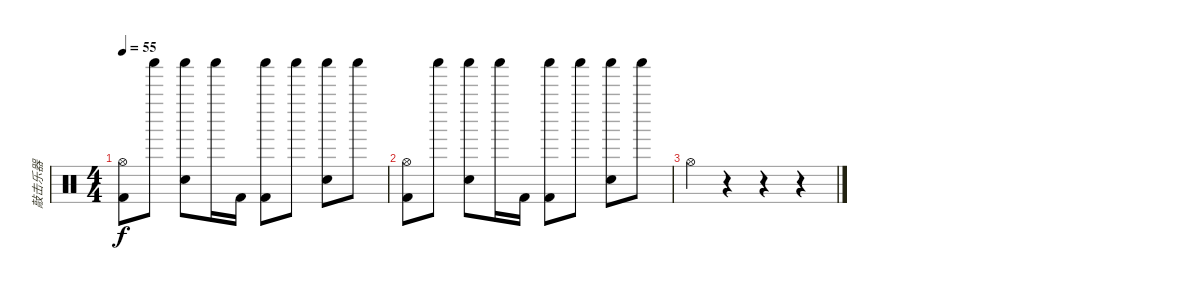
\track ("敲击乐器" "敲击乐器") {instrument percussion}
\staff {score}
\articulation defaults
\ts (4 4)
\tempo 55
\clef neutral
\ks c
("Hi-Hat (open)" "Kick (hit) 2").8{dy f} "Shaker (hit)".8 ("Shaker (hit)" "Snare (hit) 2").8 "Shaker (hit)".16 "Kick (hit) 2".16 ("Shaker (hit)" "Kick (hit) 2").8 "Shaker (hit)".8 ("Shaker (hit)" "Snare (hit) 2").8 "Shaker (hit)".8 |
("Hi-Hat (open)" "Kick (hit) 2").8 "Shaker (hit)".8 ("Shaker (hit)" "Snare (hit) 2").8 "Shaker (hit)".16 "Kick (hit) 2".16 ("Shaker (hit)" "Kick (hit) 2").8 "Shaker (hit)".8 ("Shaker (hit)" "Snare (hit) 2").8 "Shaker (hit)".8 |
"Hi-Hat (open)".4 r.4 r.4 r.4
